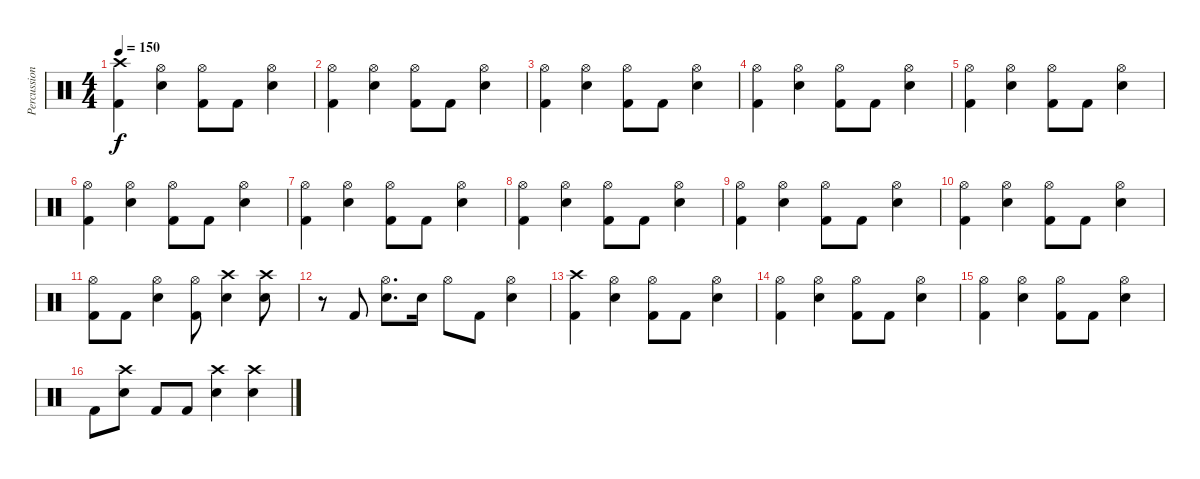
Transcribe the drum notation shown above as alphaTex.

\track ("Percussion" "Percussion") {instrument percussion}
\staff {score}
\articulation defaults
\ts (4 4)
\tempo 150
\clef neutral
\ks c
("Crash high (hit)" "Kick (hit) 2").4{dy f} ("Hi-Hat (open)" "Snare (hit) 2").4 ("Hi-Hat (open)" "Kick (hit) 2").8 "Kick (hit) 2".8 ("Hi-Hat (open)" "Snare (hit) 2").4 |
("Hi-Hat (open)" "Kick (hit) 2").4 ("Hi-Hat (open)" "Snare (hit) 2").4 ("Hi-Hat (open)" "Kick (hit) 2").8 "Kick (hit) 2".8 ("Hi-Hat (open)" "Snare (hit) 2").4 |
("Hi-Hat (open)" "Kick (hit) 2").4 ("Hi-Hat (open)" "Snare (hit) 2").4 ("Hi-Hat (open)" "Kick (hit) 2").8 "Kick (hit) 2".8 ("Hi-Hat (open)" "Snare (hit) 2").4 |
("Hi-Hat (open)" "Kick (hit) 2").4 ("Hi-Hat (open)" "Snare (hit) 2").4 ("Hi-Hat (open)" "Kick (hit) 2").8 "Kick (hit) 2".8 ("Hi-Hat (open)" "Snare (hit) 2").4 |
("Hi-Hat (open)" "Kick (hit) 2").4 ("Hi-Hat (open)" "Snare (hit) 2").4 ("Hi-Hat (open)" "Kick (hit) 2").8 "Kick (hit) 2".8 ("Hi-Hat (open)" "Snare (hit) 2").4 |
("Hi-Hat (open)" "Kick (hit) 2").4 ("Hi-Hat (open)" "Snare (hit) 2").4 ("Hi-Hat (open)" "Kick (hit) 2").8 "Kick (hit) 2".8 ("Hi-Hat (open)" "Snare (hit) 2").4 |
("Hi-Hat (open)" "Kick (hit) 2").4 ("Hi-Hat (open)" "Snare (hit) 2").4 ("Hi-Hat (open)" "Kick (hit) 2").8 "Kick (hit) 2".8 ("Hi-Hat (open)" "Snare (hit) 2").4 |
("Hi-Hat (open)" "Kick (hit) 2").4 ("Hi-Hat (open)" "Snare (hit) 2").4 ("Hi-Hat (open)" "Kick (hit) 2").8 "Kick (hit) 2".8 ("Hi-Hat (open)" "Snare (hit) 2").4 |
("Hi-Hat (open)" "Kick (hit) 2").4 ("Hi-Hat (open)" "Snare (hit) 2").4 ("Hi-Hat (open)" "Kick (hit) 2").8 "Kick (hit) 2".8 ("Hi-Hat (open)" "Snare (hit) 2").4 |
("Hi-Hat (open)" "Kick (hit) 2").4 ("Hi-Hat (open)" "Snare (hit) 2").4 ("Hi-Hat (open)" "Kick (hit) 2").8 "Kick (hit) 2".8 ("Hi-Hat (open)" "Snare (hit) 2").4 |
("Hi-Hat (open)" "Kick (hit) 2").8 "Kick (hit) 2".8 ("Hi-Hat (open)" "Snare (hit) 2").4 ("Hi-Hat (open)" "Kick (hit) 2").8 ("Crash high (hit)" "Snare (hit) 2").4 ("Crash high (hit)" "Snare (hit) 2").8 |
r.8 "Kick (hit) 2".8 ("Hi-Hat (open)" "Snare (hit) 2").8{d} "Snare (hit) 2".16 "Hi-Hat (open)".8 "Kick (hit) 2".8 ("Hi-Hat (open)" "Snare (hit) 2").4 |
("Crash high (hit)" "Kick (hit) 2").4 ("Hi-Hat (open)" "Snare (hit) 2").4 ("Hi-Hat (open)" "Kick (hit) 2").8 "Kick (hit) 2".8 ("Hi-Hat (open)" "Snare (hit) 2").4 |
("Hi-Hat (open)" "Kick (hit) 2").4 ("Hi-Hat (open)" "Snare (hit) 2").4 ("Hi-Hat (open)" "Kick (hit) 2").8 "Kick (hit) 2".8 ("Hi-Hat (open)" "Snare (hit) 2").4 |
("Hi-Hat (open)" "Kick (hit) 2").4 ("Hi-Hat (open)" "Snare (hit) 2").4 ("Hi-Hat (open)" "Kick (hit) 2").8 "Kick (hit) 2".8 ("Hi-Hat (open)" "Snare (hit) 2").4 |
"Kick (hit) 2".8 ("Crash high (hit)" "Snare (hit) 2").8 "Kick (hit) 2".8 "Kick (hit) 2".8 ("Crash high (hit)" "Snare (hit) 2").4 ("Crash high (hit)" "Snare (hit) 2").4
